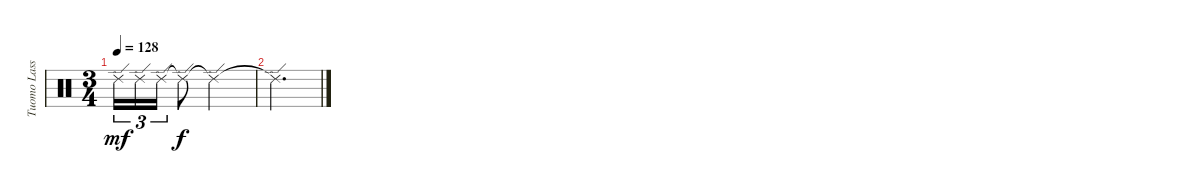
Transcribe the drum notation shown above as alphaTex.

\track ("Tuomo Lassila" "Tuomo Lass") {instrument percussion}
\staff {score}
\articulation defaults
\ts (3 4)
\tempo 128
\clef neutral
\ks c "Ride (edge) 2".16{tu (3 2) dy mf} "Ride (edge) 2".16{tu (3 2)} "Ride (edge) 2".16{tu (3 2)} "Ride (edge) 2"{t}.8{dy f} "Ride (edge) 2"{t}.2
|
"Ride (edge) 2"{t}.2{d}
